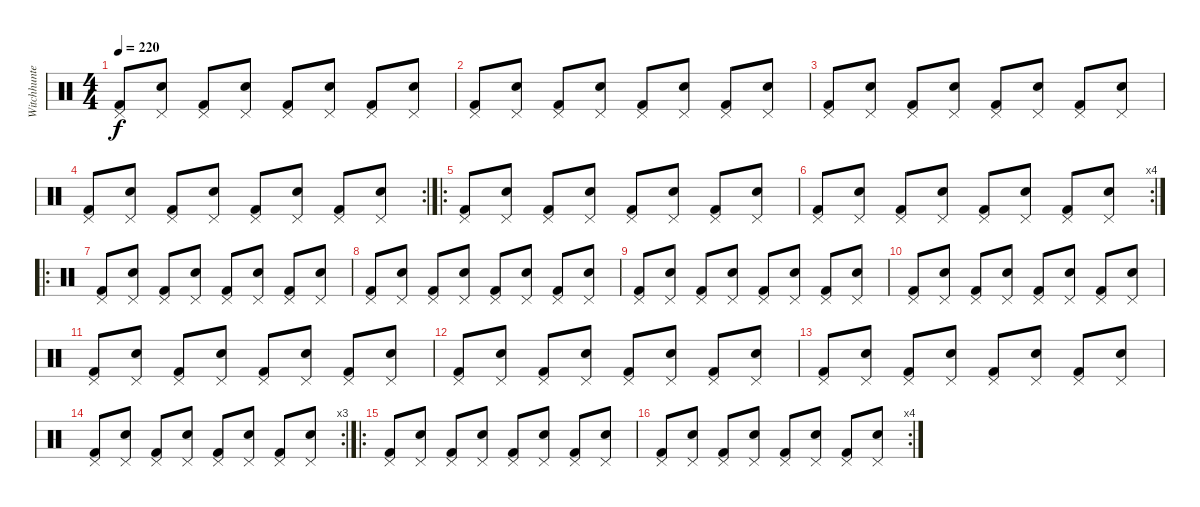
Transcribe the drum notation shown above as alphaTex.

\track ("Witchhunter" "Witchhunte") {instrument percussion}
\staff {score}
\articulation defaults
\ts (4 4)
\tempo 220
\clef neutral
\ks c
("Kick (hit) 2" "Pedal Hi-Hat (hit)").8{dy f} ("Snare (hit) 2" "Pedal Hi-Hat (hit)").8 ("Kick (hit) 2" "Pedal Hi-Hat (hit)").8 ("Snare (hit) 2" "Pedal Hi-Hat (hit)").8 ("Kick (hit) 2" "Pedal Hi-Hat (hit)").8 ("Snare (hit) 2" "Pedal Hi-Hat (hit)").8 ("Kick (hit) 2" "Pedal Hi-Hat (hit)").8 ("Snare (hit) 2" "Pedal Hi-Hat (hit)").8 |
("Kick (hit) 2" "Pedal Hi-Hat (hit)").8 ("Snare (hit) 2" "Pedal Hi-Hat (hit)").8 ("Kick (hit) 2" "Pedal Hi-Hat (hit)").8 ("Snare (hit) 2" "Pedal Hi-Hat (hit)").8 ("Kick (hit) 2" "Pedal Hi-Hat (hit)").8 ("Snare (hit) 2" "Pedal Hi-Hat (hit)").8 ("Kick (hit) 2" "Pedal Hi-Hat (hit)").8 ("Snare (hit) 2" "Pedal Hi-Hat (hit)").8 |
("Kick (hit) 2" "Pedal Hi-Hat (hit)").8 ("Snare (hit) 2" "Pedal Hi-Hat (hit)").8 ("Kick (hit) 2" "Pedal Hi-Hat (hit)").8 ("Snare (hit) 2" "Pedal Hi-Hat (hit)").8 ("Kick (hit) 2" "Pedal Hi-Hat (hit)").8 ("Snare (hit) 2" "Pedal Hi-Hat (hit)").8 ("Kick (hit) 2" "Pedal Hi-Hat (hit)").8 ("Snare (hit) 2" "Pedal Hi-Hat (hit)").8 |
\rc 2
("Kick (hit) 2" "Pedal Hi-Hat (hit)").8 ("Snare (hit) 2" "Pedal Hi-Hat (hit)").8 ("Kick (hit) 2" "Pedal Hi-Hat (hit)").8 ("Snare (hit) 2" "Pedal Hi-Hat (hit)").8 ("Kick (hit) 2" "Pedal Hi-Hat (hit)").8 ("Snare (hit) 2" "Pedal Hi-Hat (hit)").8 ("Kick (hit) 2" "Pedal Hi-Hat (hit)").8 ("Snare (hit) 2" "Pedal Hi-Hat (hit)").8 |
\ro
("Kick (hit) 2" "Pedal Hi-Hat (hit)").8 ("Snare (hit) 2" "Pedal Hi-Hat (hit)").8 ("Kick (hit) 2" "Pedal Hi-Hat (hit)").8 ("Snare (hit) 2" "Pedal Hi-Hat (hit)").8 ("Kick (hit) 2" "Pedal Hi-Hat (hit)").8 ("Snare (hit) 2" "Pedal Hi-Hat (hit)").8 ("Kick (hit) 2" "Pedal Hi-Hat (hit)").8 ("Snare (hit) 2" "Pedal Hi-Hat (hit)").8 |
\rc 4
("Kick (hit) 2" "Pedal Hi-Hat (hit)").8 ("Snare (hit) 2" "Pedal Hi-Hat (hit)").8 ("Kick (hit) 2" "Pedal Hi-Hat (hit)").8 ("Snare (hit) 2" "Pedal Hi-Hat (hit)").8 ("Kick (hit) 2" "Pedal Hi-Hat (hit)").8 ("Snare (hit) 2" "Pedal Hi-Hat (hit)").8 ("Kick (hit) 2" "Pedal Hi-Hat (hit)").8 ("Snare (hit) 2" "Pedal Hi-Hat (hit)").8 |
\ro
("Kick (hit) 2" "Pedal Hi-Hat (hit)").8 ("Snare (hit) 2" "Pedal Hi-Hat (hit)").8 ("Kick (hit) 2" "Pedal Hi-Hat (hit)").8 ("Snare (hit) 2" "Pedal Hi-Hat (hit)").8 ("Kick (hit) 2" "Pedal Hi-Hat (hit)").8 ("Snare (hit) 2" "Pedal Hi-Hat (hit)").8 ("Kick (hit) 2" "Pedal Hi-Hat (hit)").8 ("Snare (hit) 2" "Pedal Hi-Hat (hit)").8 |
("Kick (hit) 2" "Pedal Hi-Hat (hit)").8 ("Snare (hit) 2" "Pedal Hi-Hat (hit)").8 ("Kick (hit) 2" "Pedal Hi-Hat (hit)").8 ("Snare (hit) 2" "Pedal Hi-Hat (hit)").8 ("Kick (hit) 2" "Pedal Hi-Hat (hit)").8 ("Snare (hit) 2" "Pedal Hi-Hat (hit)").8 ("Kick (hit) 2" "Pedal Hi-Hat (hit)").8 ("Snare (hit) 2" "Pedal Hi-Hat (hit)").8 |
("Kick (hit) 2" "Pedal Hi-Hat (hit)").8 ("Snare (hit) 2" "Pedal Hi-Hat (hit)").8 ("Kick (hit) 2" "Pedal Hi-Hat (hit)").8 ("Snare (hit) 2" "Pedal Hi-Hat (hit)").8 ("Kick (hit) 2" "Pedal Hi-Hat (hit)").8 ("Snare (hit) 2" "Pedal Hi-Hat (hit)").8 ("Kick (hit) 2" "Pedal Hi-Hat (hit)").8 ("Snare (hit) 2" "Pedal Hi-Hat (hit)").8 |
("Kick (hit) 2" "Pedal Hi-Hat (hit)").8 ("Snare (hit) 2" "Pedal Hi-Hat (hit)").8 ("Kick (hit) 2" "Pedal Hi-Hat (hit)").8 ("Snare (hit) 2" "Pedal Hi-Hat (hit)").8 ("Kick (hit) 2" "Pedal Hi-Hat (hit)").8 ("Snare (hit) 2" "Pedal Hi-Hat (hit)").8 ("Kick (hit) 2" "Pedal Hi-Hat (hit)").8 ("Snare (hit) 2" "Pedal Hi-Hat (hit)").8 |
("Kick (hit) 2" "Pedal Hi-Hat (hit)").8 ("Snare (hit) 2" "Pedal Hi-Hat (hit)").8 ("Kick (hit) 2" "Pedal Hi-Hat (hit)").8 ("Snare (hit) 2" "Pedal Hi-Hat (hit)").8 ("Kick (hit) 2" "Pedal Hi-Hat (hit)").8 ("Snare (hit) 2" "Pedal Hi-Hat (hit)").8 ("Kick (hit) 2" "Pedal Hi-Hat (hit)").8 ("Snare (hit) 2" "Pedal Hi-Hat (hit)").8 |
("Kick (hit) 2" "Pedal Hi-Hat (hit)").8 ("Snare (hit) 2" "Pedal Hi-Hat (hit)").8 ("Kick (hit) 2" "Pedal Hi-Hat (hit)").8 ("Snare (hit) 2" "Pedal Hi-Hat (hit)").8 ("Kick (hit) 2" "Pedal Hi-Hat (hit)").8 ("Snare (hit) 2" "Pedal Hi-Hat (hit)").8 ("Kick (hit) 2" "Pedal Hi-Hat (hit)").8 ("Snare (hit) 2" "Pedal Hi-Hat (hit)").8 |
("Kick (hit) 2" "Pedal Hi-Hat (hit)").8 ("Snare (hit) 2" "Pedal Hi-Hat (hit)").8 ("Kick (hit) 2" "Pedal Hi-Hat (hit)").8 ("Snare (hit) 2" "Pedal Hi-Hat (hit)").8 ("Kick (hit) 2" "Pedal Hi-Hat (hit)").8 ("Snare (hit) 2" "Pedal Hi-Hat (hit)").8 ("Kick (hit) 2" "Pedal Hi-Hat (hit)").8 ("Snare (hit) 2" "Pedal Hi-Hat (hit)").8 |
\rc 3
("Kick (hit) 2" "Pedal Hi-Hat (hit)").8 ("Snare (hit) 2" "Pedal Hi-Hat (hit)").8 ("Kick (hit) 2" "Pedal Hi-Hat (hit)").8 ("Snare (hit) 2" "Pedal Hi-Hat (hit)").8 ("Kick (hit) 2" "Pedal Hi-Hat (hit)").8 ("Snare (hit) 2" "Pedal Hi-Hat (hit)").8 ("Kick (hit) 2" "Pedal Hi-Hat (hit)").8 ("Snare (hit) 2" "Pedal Hi-Hat (hit)").8 |
\ro
("Kick (hit) 2" "Pedal Hi-Hat (hit)").8 ("Snare (hit) 2" "Pedal Hi-Hat (hit)").8 ("Kick (hit) 2" "Pedal Hi-Hat (hit)").8 ("Snare (hit) 2" "Pedal Hi-Hat (hit)").8 ("Kick (hit) 2" "Pedal Hi-Hat (hit)").8 ("Snare (hit) 2" "Pedal Hi-Hat (hit)").8 ("Kick (hit) 2" "Pedal Hi-Hat (hit)").8 ("Snare (hit) 2" "Pedal Hi-Hat (hit)").8 |
\rc 4
("Kick (hit) 2" "Pedal Hi-Hat (hit)").8 ("Snare (hit) 2" "Pedal Hi-Hat (hit)").8 ("Kick (hit) 2" "Pedal Hi-Hat (hit)").8 ("Snare (hit) 2" "Pedal Hi-Hat (hit)").8 ("Kick (hit) 2" "Pedal Hi-Hat (hit)").8 ("Snare (hit) 2" "Pedal Hi-Hat (hit)").8 ("Kick (hit) 2" "Pedal Hi-Hat (hit)").8 ("Snare (hit) 2" "Pedal Hi-Hat (hit)").8
